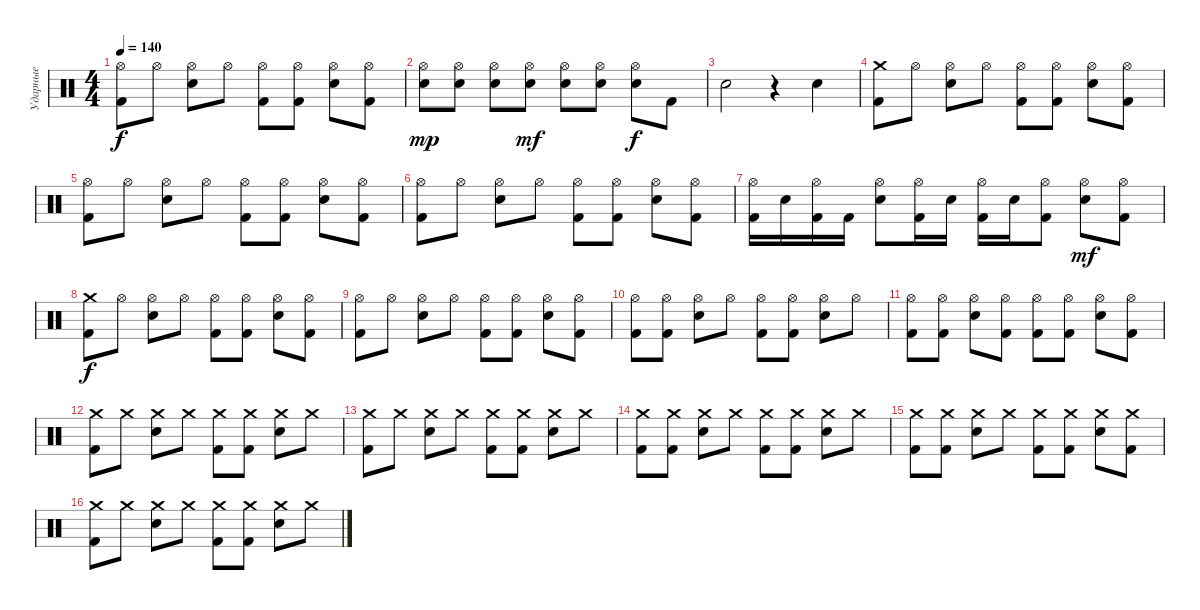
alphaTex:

\track ("Ударные" "Ударные") {instrument percussion}
\staff {score}
\articulation defaults
\ts (4 4)
\tempo 140
\clef neutral
\ks c
("Hi-Hat (open)" "Kick (hit) 2").8{dy f} "Hi-Hat (open)".8 ("Hi-Hat (open)" "Electric Snare (hit)").8 "Hi-Hat (open)".8 ("Hi-Hat (open)" "Kick (hit) 2").8 ("Hi-Hat (open)" "Kick (hit) 2").8 ("Hi-Hat (open)" "Electric Snare (hit)").8 ("Hi-Hat (open)" "Kick (hit) 2").8 |
("Hi-Hat (open)" "Electric Snare (hit)").8{dy mp} ("Hi-Hat (open)" "Electric Snare (hit)").8 ("Hi-Hat (open)" "Electric Snare (hit)").8 ("Hi-Hat (open)" "Electric Snare (hit)").8{dy mf} ("Hi-Hat (open)" "Electric Snare (hit)").8 ("Hi-Hat (open)" "Electric Snare (hit)").8 ("Hi-Hat (open)" "Electric Snare (hit)").8{dy f} "Kick (hit) 2".8 |
"Electric Snare (hit)".2 r.4 "Electric Snare (hit)".4 |
("Crash medium (hit)" "Kick (hit) 2").8 "Hi-Hat (open)".8 ("Hi-Hat (open)" "Electric Snare (hit)").8 "Hi-Hat (open)".8 ("Hi-Hat (open)" "Kick (hit) 2").8 ("Hi-Hat (open)" "Kick (hit) 2").8 ("Hi-Hat (open)" "Electric Snare (hit)").8 ("Hi-Hat (open)" "Kick (hit) 2").8 |
("Hi-Hat (open)" "Kick (hit) 2").8 "Hi-Hat (open)".8 ("Hi-Hat (open)" "Electric Snare (hit)").8 "Hi-Hat (open)".8 ("Hi-Hat (open)" "Kick (hit) 2").8 ("Hi-Hat (open)" "Kick (hit) 2").8 ("Hi-Hat (open)" "Electric Snare (hit)").8 ("Hi-Hat (open)" "Kick (hit) 2").8 |
("Hi-Hat (open)" "Kick (hit) 2").8 "Hi-Hat (open)".8 ("Hi-Hat (open)" "Electric Snare (hit)").8 "Hi-Hat (open)".8 ("Hi-Hat (open)" "Kick (hit) 2").8 ("Hi-Hat (open)" "Kick (hit) 2").8 ("Hi-Hat (open)" "Electric Snare (hit)").8 ("Hi-Hat (open)" "Kick (hit) 2").8 |
("Hi-Hat (open)" "Kick (hit) 2").16 "Electric Snare (hit)".16 ("Hi-Hat (open)" "Kick (hit) 2").16 "Kick (hit) 2".16 ("Hi-Hat (open)" "Electric Snare (hit)").8 ("Hi-Hat (open)" "Kick (hit) 2").16 "Electric Snare (hit)".16 ("Hi-Hat (open)" "Kick (hit) 2").16 "Electric Snare (hit)".16 ("Hi-Hat (open)" "Kick (hit) 2").8 ("Hi-Hat (open)" "Electric Snare (hit)").8{dy mf} ("Hi-Hat (open)" "Kick (hit) 2").8 |
("Crash medium (hit)" "Kick (hit) 2").8{dy f} "Hi-Hat (open)".8 ("Hi-Hat (open)" "Electric Snare (hit)").8 "Hi-Hat (open)".8 ("Hi-Hat (open)" "Kick (hit) 2").8 ("Hi-Hat (open)" "Kick (hit) 2").8 ("Hi-Hat (open)" "Electric Snare (hit)").8 ("Hi-Hat (open)" "Kick (hit) 2").8 |
("Hi-Hat (open)" "Kick (hit) 2").8 "Hi-Hat (open)".8 ("Hi-Hat (open)" "Electric Snare (hit)").8 "Hi-Hat (open)".8 ("Hi-Hat (open)" "Kick (hit) 2").8 ("Hi-Hat (open)" "Kick (hit) 2").8 ("Hi-Hat (open)" "Electric Snare (hit)").8 ("Hi-Hat (open)" "Kick (hit) 2").8 |
("Hi-Hat (open)" "Kick (hit) 2").8 ("Hi-Hat (open)" "Kick (hit) 2").8 ("Hi-Hat (open)" "Electric Snare (hit)").8 "Hi-Hat (open)".8 ("Hi-Hat (open)" "Kick (hit) 2").8 ("Hi-Hat (open)" "Kick (hit) 2").8 ("Hi-Hat (open)" "Electric Snare (hit)").8 "Hi-Hat (open)".8 |
("Hi-Hat (open)" "Kick (hit) 2").8 ("Hi-Hat (open)" "Kick (hit) 2").8 ("Hi-Hat (open)" "Electric Snare (hit)").8 ("Hi-Hat (open)" "Kick (hit) 2").8 ("Hi-Hat (open)" "Kick (hit) 2").8 ("Hi-Hat (open)" "Kick (hit) 2").8 ("Hi-Hat (open)" "Electric Snare (hit)").8 ("Hi-Hat (open)" "Kick (hit) 2").8 |
("Crash medium (hit)" "Kick (hit) 2").8 "Crash medium (hit)".8 ("Crash medium (hit)" "Electric Snare (hit)").8 "Crash medium (hit)".8 ("Crash medium (hit)" "Kick (hit) 2").8 ("Crash medium (hit)" "Kick (hit) 2").8 ("Crash medium (hit)" "Electric Snare (hit)").8 "Crash medium (hit)".8 |
("Crash medium (hit)" "Kick (hit) 2").8 "Crash medium (hit)".8 ("Crash medium (hit)" "Electric Snare (hit)").8 "Crash medium (hit)".8 ("Crash medium (hit)" "Kick (hit) 2").8 ("Crash medium (hit)" "Kick (hit) 2").8 ("Crash medium (hit)" "Electric Snare (hit)").8 "Crash medium (hit)".8 |
("Crash medium (hit)" "Kick (hit) 2").8 ("Crash medium (hit)" "Kick (hit) 2").8 ("Crash medium (hit)" "Electric Snare (hit)").8 "Crash medium (hit)".8 ("Crash medium (hit)" "Kick (hit) 2").8 ("Crash medium (hit)" "Kick (hit) 2").8 ("Crash medium (hit)" "Electric Snare (hit)").8 "Crash medium (hit)".8 |
("Crash medium (hit)" "Kick (hit) 2").8 ("Crash medium (hit)" "Kick (hit) 2").8 ("Crash medium (hit)" "Electric Snare (hit)").8 "Crash medium (hit)".8 ("Crash medium (hit)" "Kick (hit) 2").8 ("Crash medium (hit)" "Kick (hit) 2").8 ("Crash medium (hit)" "Electric Snare (hit)").8 ("Crash medium (hit)" "Kick (hit) 2").8 |
("Crash medium (hit)" "Kick (hit) 2").8 "Crash medium (hit)".8 ("Crash medium (hit)" "Electric Snare (hit)").8 "Crash medium (hit)".8 ("Crash medium (hit)" "Kick (hit) 2").8 ("Crash medium (hit)" "Kick (hit) 2").8 ("Crash medium (hit)" "Electric Snare (hit)").8 "Crash medium (hit)".8
